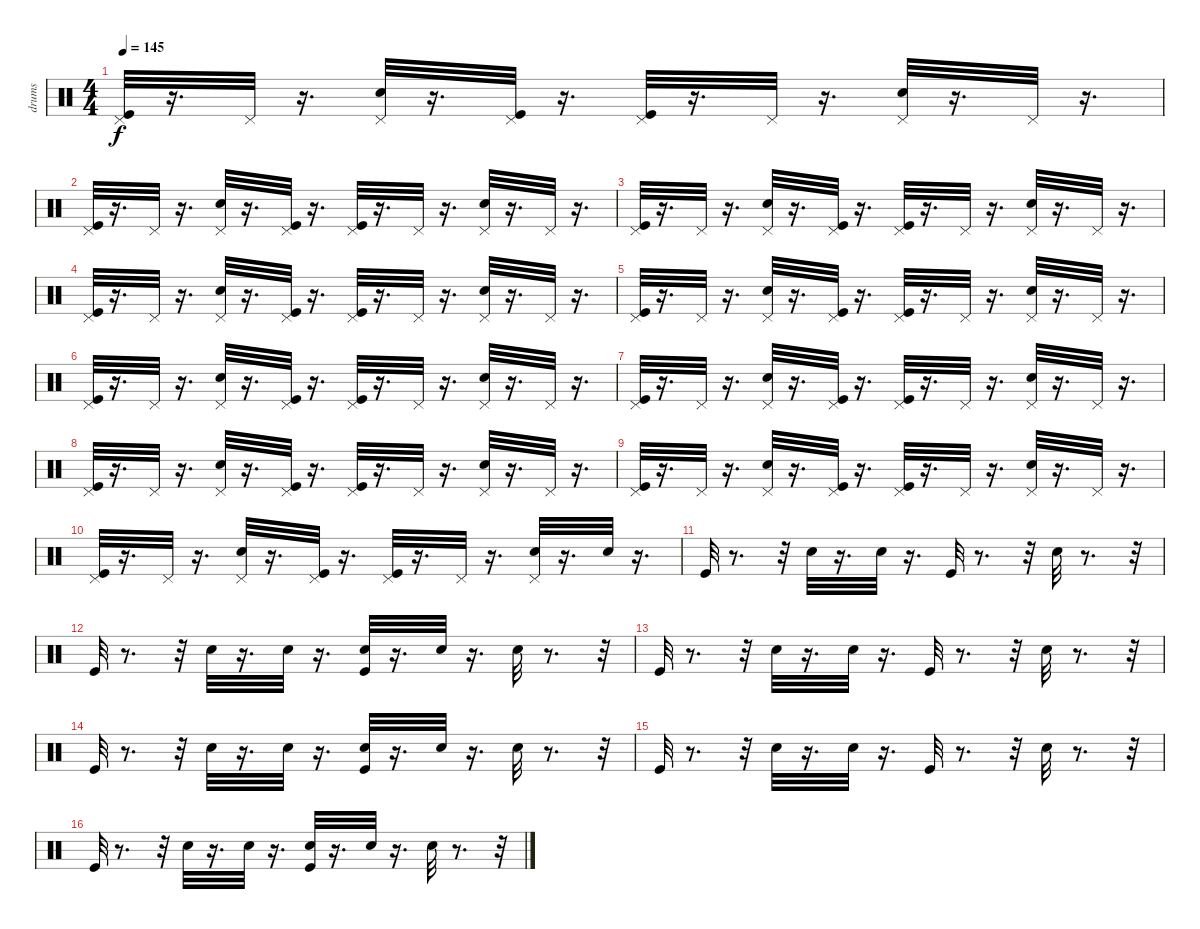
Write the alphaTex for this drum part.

\track ("drums" "drums") {instrument percussion}
\staff {score}
\articulation defaults
\ts (4 4)
\tempo 145
\clef neutral
\ks c
("Pedal Hi-Hat (hit)" "Kick (hit)").32{dy f} r.16{d} "Pedal Hi-Hat (hit)".32 r.16{d} ("Pedal Hi-Hat (hit)" "Electric Snare (hit)").32 r.16{d} ("Pedal Hi-Hat (hit)" "Kick (hit)").32 r.16{d} ("Pedal Hi-Hat (hit)" "Kick (hit)").32 r.16{d} "Pedal Hi-Hat (hit)".32 r.16{d} ("Pedal Hi-Hat (hit)" "Electric Snare (hit)").32 r.16{d} "Pedal Hi-Hat (hit)".32 r.16{d} |
("Pedal Hi-Hat (hit)" "Kick (hit)").32 r.16{d} "Pedal Hi-Hat (hit)".32 r.16{d} ("Pedal Hi-Hat (hit)" "Electric Snare (hit)").32 r.16{d} ("Pedal Hi-Hat (hit)" "Kick (hit)").32 r.16{d} ("Pedal Hi-Hat (hit)" "Kick (hit)").32 r.16{d} "Pedal Hi-Hat (hit)".32 r.16{d} ("Pedal Hi-Hat (hit)" "Electric Snare (hit)").32 r.16{d} "Pedal Hi-Hat (hit)".32 r.16{d} |
("Pedal Hi-Hat (hit)" "Kick (hit)").32 r.16{d} "Pedal Hi-Hat (hit)".32 r.16{d} ("Pedal Hi-Hat (hit)" "Electric Snare (hit)").32 r.16{d} ("Pedal Hi-Hat (hit)" "Kick (hit)").32 r.16{d} ("Pedal Hi-Hat (hit)" "Kick (hit)").32 r.16{d} "Pedal Hi-Hat (hit)".32 r.16{d} ("Pedal Hi-Hat (hit)" "Electric Snare (hit)").32 r.16{d} "Pedal Hi-Hat (hit)".32 r.16{d} |
("Pedal Hi-Hat (hit)" "Kick (hit)").32 r.16{d} "Pedal Hi-Hat (hit)".32 r.16{d} ("Pedal Hi-Hat (hit)" "Electric Snare (hit)").32 r.16{d} ("Pedal Hi-Hat (hit)" "Kick (hit)").32 r.16{d} ("Pedal Hi-Hat (hit)" "Kick (hit)").32 r.16{d} "Pedal Hi-Hat (hit)".32 r.16{d} ("Pedal Hi-Hat (hit)" "Electric Snare (hit)").32 r.16{d} "Pedal Hi-Hat (hit)".32 r.16{d} |
("Pedal Hi-Hat (hit)" "Kick (hit)").32 r.16{d} "Pedal Hi-Hat (hit)".32 r.16{d} ("Pedal Hi-Hat (hit)" "Electric Snare (hit)").32 r.16{d} ("Pedal Hi-Hat (hit)" "Kick (hit)").32 r.16{d} ("Pedal Hi-Hat (hit)" "Kick (hit)").32 r.16{d} "Pedal Hi-Hat (hit)".32 r.16{d} ("Pedal Hi-Hat (hit)" "Electric Snare (hit)").32 r.16{d} "Pedal Hi-Hat (hit)".32 r.16{d} |
("Pedal Hi-Hat (hit)" "Kick (hit)").32 r.16{d} "Pedal Hi-Hat (hit)".32 r.16{d} ("Pedal Hi-Hat (hit)" "Electric Snare (hit)").32 r.16{d} ("Pedal Hi-Hat (hit)" "Kick (hit)").32 r.16{d} ("Pedal Hi-Hat (hit)" "Kick (hit)").32 r.16{d} "Pedal Hi-Hat (hit)".32 r.16{d} ("Pedal Hi-Hat (hit)" "Electric Snare (hit)").32 r.16{d} "Pedal Hi-Hat (hit)".32 r.16{d} |
("Pedal Hi-Hat (hit)" "Kick (hit)").32 r.16{d} "Pedal Hi-Hat (hit)".32 r.16{d} ("Pedal Hi-Hat (hit)" "Electric Snare (hit)").32 r.16{d} ("Pedal Hi-Hat (hit)" "Kick (hit)").32 r.16{d} ("Pedal Hi-Hat (hit)" "Kick (hit)").32 r.16{d} "Pedal Hi-Hat (hit)".32 r.16{d} ("Pedal Hi-Hat (hit)" "Electric Snare (hit)").32 r.16{d} "Pedal Hi-Hat (hit)".32 r.16{d} |
("Pedal Hi-Hat (hit)" "Kick (hit)").32 r.16{d} "Pedal Hi-Hat (hit)".32 r.16{d} ("Pedal Hi-Hat (hit)" "Electric Snare (hit)").32 r.16{d} ("Pedal Hi-Hat (hit)" "Kick (hit)").32 r.16{d} ("Pedal Hi-Hat (hit)" "Kick (hit)").32 r.16{d} "Pedal Hi-Hat (hit)".32 r.16{d} ("Pedal Hi-Hat (hit)" "Electric Snare (hit)").32 r.16{d} "Pedal Hi-Hat (hit)".32 r.16{d} |
("Pedal Hi-Hat (hit)" "Kick (hit)").32 r.16{d} "Pedal Hi-Hat (hit)".32 r.16{d} ("Pedal Hi-Hat (hit)" "Electric Snare (hit)").32 r.16{d} ("Pedal Hi-Hat (hit)" "Kick (hit)").32 r.16{d} ("Pedal Hi-Hat (hit)" "Kick (hit)").32 r.16{d} "Pedal Hi-Hat (hit)".32 r.16{d} ("Pedal Hi-Hat (hit)" "Electric Snare (hit)").32 r.16{d} "Pedal Hi-Hat (hit)".32 r.16{d} |
("Pedal Hi-Hat (hit)" "Kick (hit)").32 r.16{d} "Pedal Hi-Hat (hit)".32 r.16{d} ("Pedal Hi-Hat (hit)" "Electric Snare (hit)").32 r.16{d} ("Pedal Hi-Hat (hit)" "Kick (hit)").32 r.16{d} ("Pedal Hi-Hat (hit)" "Kick (hit)").32 r.16{d} "Pedal Hi-Hat (hit)".32 r.16{d} ("Pedal Hi-Hat (hit)" "Electric Snare (hit)").32 r.16{d} "Electric Snare (hit)".32 r.16{d} |
"Kick (hit)".32 r.8{d} r.32 "Electric Snare (hit)".32 r.16{d} "Electric Snare (hit)".32 r.16{d} "Kick (hit)".32 r.8{d} r.32 "Electric Snare (hit)".32 r.8{d} r.32 |
"Kick (hit)".32 r.8{d} r.32 "Electric Snare (hit)".32 r.16{d} "Electric Snare (hit)".32 r.16{d} ("Kick (hit)" "Hand Clap (hit)").32 r.16{d} "Hand Clap (hit)".32 r.16{d} "Electric Snare (hit)".32 r.8{d} r.32 |
"Kick (hit)".32 r.8{d} r.32 "Electric Snare (hit)".32 r.16{d} "Electric Snare (hit)".32 r.16{d} "Kick (hit)".32 r.8{d} r.32 "Electric Snare (hit)".32 r.8{d} r.32 |
"Kick (hit)".32 r.8{d} r.32 "Electric Snare (hit)".32 r.16{d} "Electric Snare (hit)".32 r.16{d} ("Hand Clap (hit)" "Kick (hit)").32 r.16{d} "Hand Clap (hit)".32 r.16{d} "Electric Snare (hit)".32 r.8{d} r.32 |
"Kick (hit)".32 r.8{d} r.32 "Electric Snare (hit)".32 r.16{d} "Electric Snare (hit)".32 r.16{d} "Kick (hit)".32 r.8{d} r.32 "Electric Snare (hit)".32 r.8{d} r.32 |
"Kick (hit)".32 r.8{d} r.32 "Electric Snare (hit)".32 r.16{d} "Electric Snare (hit)".32 r.16{d} ("Kick (hit)" "Hand Clap (hit)").32 r.16{d} "Hand Clap (hit)".32 r.16{d} "Electric Snare (hit)".32 r.8{d} r.32
